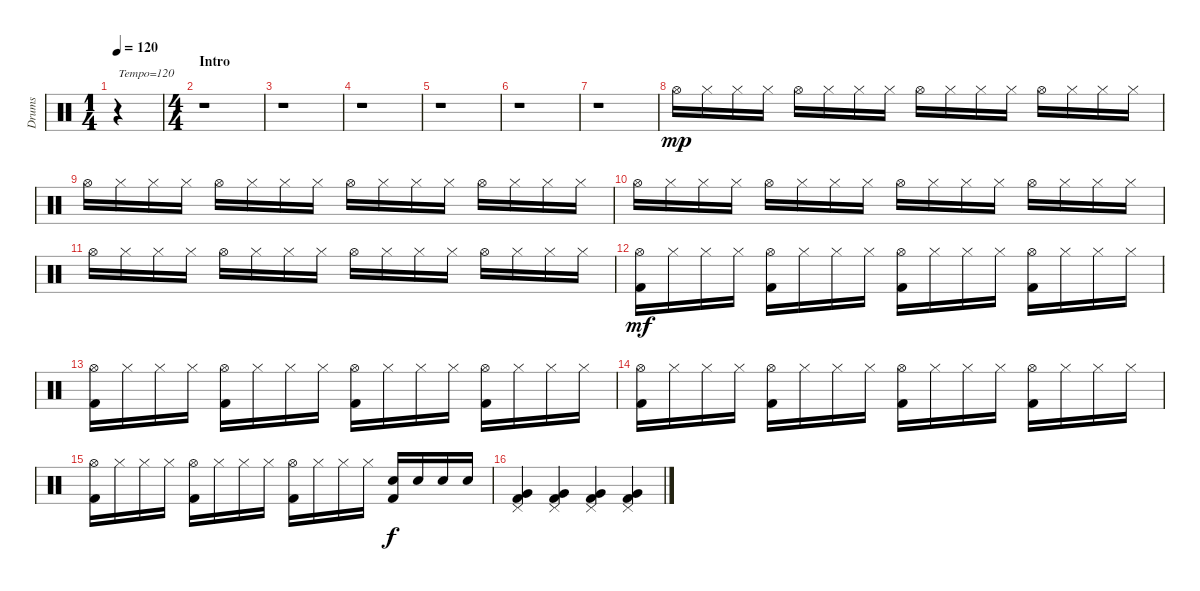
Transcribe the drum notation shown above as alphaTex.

\track ("Drums" "Drums") {instrument percussion}
\staff {score}
\articulation defaults
\ts (1 4)
\tempo 120
\clef neutral
\ks c
r.4{txt "Tempo=120" dy mp} |
\ts (4 4)
\section ("" "Intro")
r.1 |
r.1 |
r.1 |
r.1 |
r.1 |
r.1 |
"Hi-Hat (open)".16 "Hi-Hat (closed)".16 "Hi-Hat (closed)".16 "Hi-Hat (closed)".16 "Hi-Hat (open)".16 "Hi-Hat (closed)".16 "Hi-Hat (closed)".16 "Hi-Hat (closed)".16 "Hi-Hat (open)".16 "Hi-Hat (closed)".16 "Hi-Hat (closed)".16 "Hi-Hat (closed)".16 "Hi-Hat (open)".16 "Hi-Hat (closed)".16 "Hi-Hat (closed)".16 "Hi-Hat (closed)".16 |
"Hi-Hat (open)".16 "Hi-Hat (closed)".16 "Hi-Hat (closed)".16 "Hi-Hat (closed)".16 "Hi-Hat (open)".16 "Hi-Hat (closed)".16 "Hi-Hat (closed)".16 "Hi-Hat (closed)".16 "Hi-Hat (open)".16 "Hi-Hat (closed)".16 "Hi-Hat (closed)".16 "Hi-Hat (closed)".16 "Hi-Hat (open)".16 "Hi-Hat (closed)".16 "Hi-Hat (closed)".16 "Hi-Hat (closed)".16 |
"Hi-Hat (open)".16 "Hi-Hat (closed)".16 "Hi-Hat (closed)".16 "Hi-Hat (closed)".16 "Hi-Hat (open)".16 "Hi-Hat (closed)".16 "Hi-Hat (closed)".16 "Hi-Hat (closed)".16 "Hi-Hat (open)".16 "Hi-Hat (closed)".16 "Hi-Hat (closed)".16 "Hi-Hat (closed)".16 "Hi-Hat (open)".16 "Hi-Hat (closed)".16 "Hi-Hat (closed)".16 "Hi-Hat (closed)".16 |
"Hi-Hat (open)".16 "Hi-Hat (closed)".16 "Hi-Hat (closed)".16 "Hi-Hat (closed)".16 "Hi-Hat (open)".16 "Hi-Hat (closed)".16 "Hi-Hat (closed)".16 "Hi-Hat (closed)".16 "Hi-Hat (open)".16 "Hi-Hat (closed)".16 "Hi-Hat (closed)".16 "Hi-Hat (closed)".16 "Hi-Hat (open)".16 "Hi-Hat (closed)".16 "Hi-Hat (closed)".16 "Hi-Hat (closed)".16 |
("Hi-Hat (open)" "Kick (hit) 2").16{dy mf} "Hi-Hat (closed)".16 "Hi-Hat (closed)".16 "Hi-Hat (closed)".16 ("Hi-Hat (open)" "Kick (hit) 2").16 "Hi-Hat (closed)".16 "Hi-Hat (closed)".16 "Hi-Hat (closed)".16 ("Hi-Hat (open)" "Kick (hit) 2").16 "Hi-Hat (closed)".16 "Hi-Hat (closed)".16 "Hi-Hat (closed)".16 ("Hi-Hat (open)" "Kick (hit) 2").16 "Hi-Hat (closed)".16 "Hi-Hat (closed)".16 "Hi-Hat (closed)".16 |
("Hi-Hat (open)" "Kick (hit) 2").16 "Hi-Hat (closed)".16 "Hi-Hat (closed)".16 "Hi-Hat (closed)".16 ("Hi-Hat (open)" "Kick (hit) 2").16 "Hi-Hat (closed)".16 "Hi-Hat (closed)".16 "Hi-Hat (closed)".16 ("Hi-Hat (open)" "Kick (hit) 2").16 "Hi-Hat (closed)".16 "Hi-Hat (closed)".16 "Hi-Hat (closed)".16 ("Hi-Hat (open)" "Kick (hit) 2").16 "Hi-Hat (closed)".16 "Hi-Hat (closed)".16 "Hi-Hat (closed)".16 |
("Hi-Hat (open)" "Kick (hit) 2").16 "Hi-Hat (closed)".16 "Hi-Hat (closed)".16 "Hi-Hat (closed)".16 ("Hi-Hat (open)" "Kick (hit) 2").16 "Hi-Hat (closed)".16 "Hi-Hat (closed)".16 "Hi-Hat (closed)".16 ("Hi-Hat (open)" "Kick (hit) 2").16 "Hi-Hat (closed)".16 "Hi-Hat (closed)".16 "Hi-Hat (closed)".16 ("Hi-Hat (open)" "Kick (hit) 2").16 "Hi-Hat (closed)".16 "Hi-Hat (closed)".16 "Hi-Hat (closed)".16 |
("Hi-Hat (open)" "Kick (hit) 2").16 "Hi-Hat (closed)".16 "Hi-Hat (closed)".16 "Hi-Hat (closed)".16 ("Hi-Hat (open)" "Kick (hit) 2").16 "Hi-Hat (closed)".16 "Hi-Hat (closed)".16 "Hi-Hat (closed)".16 ("Hi-Hat (open)" "Kick (hit) 2").16 "Hi-Hat (closed)".16 "Hi-Hat (closed)".16 "Hi-Hat (closed)".16 ("Snare (hit) 2" "Kick (hit) 2").16{dy f} "Snare (hit) 2".16 "Snare (hit) 2".16 "Snare (hit) 2".16 |
("Pedal Hi-Hat (hit)" "Very Low Tom (hit)" "Kick (hit) 2").4 ("Pedal Hi-Hat (hit)" "Very Low Tom (hit)" "Kick (hit) 2").4 ("Pedal Hi-Hat (hit)" "Very Low Tom (hit)" "Kick (hit) 2").4 ("Pedal Hi-Hat (hit)" "Very Low Tom (hit)" "Kick (hit) 2").4
